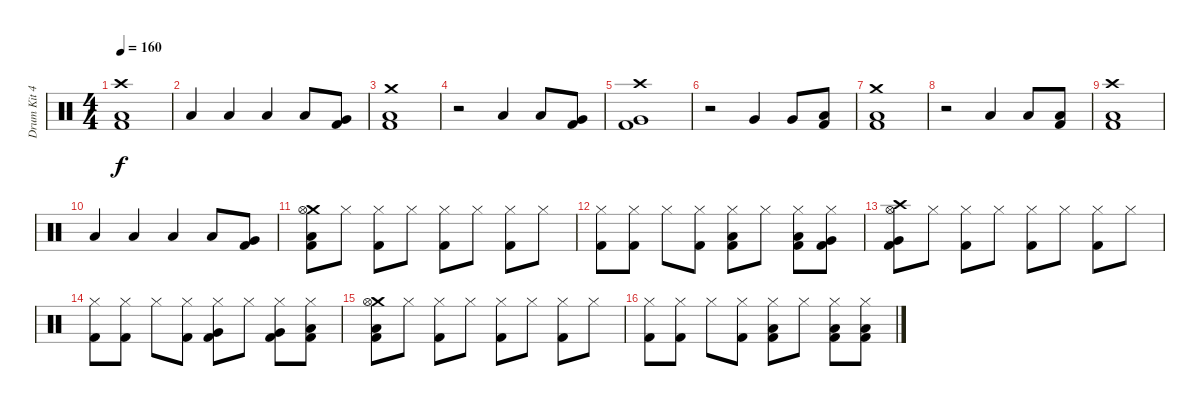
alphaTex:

\track ("Drum Kit 42" "Drum Kit 4") {instrument percussion}
\staff {score}
\articulation defaults
\ts (4 4)
\tempo 160
\clef neutral
\ks c
("Crash high (hit)" "Low Floor Tom (hit)" "Kick (hit) 2").1{dy f} |
"Low Floor Tom (hit)".4 "Low Floor Tom (hit)".4 "Low Floor Tom (hit)".4 "Low Floor Tom (hit)".8 ("Very Low Tom (hit)" "Kick (hit) 2").8 |
("Crash medium (hit)" "Low Tom (hit)" "Kick (hit) 2").1 |
r.2 "Low Tom (hit)".4 "Low Tom (hit)".8 ("Very Low Tom (hit)" "Kick (hit) 2").8 |
("Crash high (hit)" "Very Low Tom (hit)" "Kick (hit) 2").1 |
r.2 "Very Low Tom (hit)".4 "Very Low Tom (hit)".8 ("Low Floor Tom (hit)" "Kick (hit) 2").8 |
("Crash medium (hit)" "Low Floor Tom (hit)" "Kick (hit) 2").1 |
r.2 "Low Floor Tom (hit)".4 "Low Floor Tom (hit)".8 ("Low Floor Tom (hit)" "Kick (hit) 2").8 |
("Crash high (hit)" "Low Floor Tom (hit)" "Kick (hit) 2").1 |
"Low Floor Tom (hit)".4 "Low Floor Tom (hit)".4 "Low Floor Tom (hit)".4 "Low Floor Tom (hit)".8 ("Very Low Tom (hit)" "Kick (hit) 2").8 |
("Crash medium (hit)" "Hi-Hat (open)" "Low Tom (hit)" "Kick (hit) 2").8 "Hi-Hat (closed)".8 ("Hi-Hat (closed)" "Kick (hit) 2").8 "Hi-Hat (closed)".8 ("Hi-Hat (closed)" "Kick (hit) 2").8 "Hi-Hat (closed)".8 ("Hi-Hat (closed)" "Kick (hit) 2").8 "Hi-Hat (closed)".8 |
("Hi-Hat (closed)" "Kick (hit) 2").8 ("Hi-Hat (closed)" "Kick (hit) 2").8 "Hi-Hat (closed)".8 ("Hi-Hat (closed)" "Kick (hit) 2").8 ("Hi-Hat (closed)" "Low Tom (hit)" "Kick (hit) 2").8 "Hi-Hat (closed)".8 ("Hi-Hat (closed)" "Low Tom (hit)" "Kick (hit) 2").8 ("Hi-Hat (closed)" "Very Low Tom (hit)" "Kick (hit) 2").8 |
("Crash high (hit)" "Hi-Hat (open)" "Very Low Tom (hit)" "Kick (hit) 2").8 "Hi-Hat (closed)".8 ("Hi-Hat (closed)" "Kick (hit) 2").8 "Hi-Hat (closed)".8 ("Hi-Hat (closed)" "Kick (hit) 2").8 "Hi-Hat (closed)".8 ("Hi-Hat (closed)" "Kick (hit) 2").8 "Hi-Hat (closed)".8 |
("Hi-Hat (closed)" "Kick (hit) 2").8 ("Hi-Hat (closed)" "Kick (hit) 2").8 "Hi-Hat (closed)".8 ("Hi-Hat (closed)" "Kick (hit) 2").8 ("Hi-Hat (closed)" "Very Low Tom (hit)" "Kick (hit) 2").8 "Hi-Hat (closed)".8 ("Hi-Hat (closed)" "Very Low Tom (hit)" "Kick (hit) 2").8 ("Hi-Hat (closed)" "Low Floor Tom (hit)" "Kick (hit) 2").8 |
("Crash medium (hit)" "Hi-Hat (open)" "Low Floor Tom (hit)" "Kick (hit) 2").8 "Hi-Hat (closed)".8 ("Hi-Hat (closed)" "Kick (hit) 2").8 "Hi-Hat (closed)".8 ("Hi-Hat (closed)" "Kick (hit) 2").8 "Hi-Hat (closed)".8 ("Hi-Hat (closed)" "Kick (hit) 2").8 "Hi-Hat (closed)".8 |
("Hi-Hat (closed)" "Kick (hit) 2").8 ("Hi-Hat (closed)" "Kick (hit) 2").8 "Hi-Hat (closed)".8 ("Hi-Hat (closed)" "Kick (hit) 2").8 ("Hi-Hat (closed)" "Low Floor Tom (hit)" "Kick (hit) 2").8 "Hi-Hat (closed)".8 ("Hi-Hat (closed)" "Low Floor Tom (hit)" "Kick (hit) 2").8 ("Hi-Hat (closed)" "Low Floor Tom (hit)" "Kick (hit) 2").8
